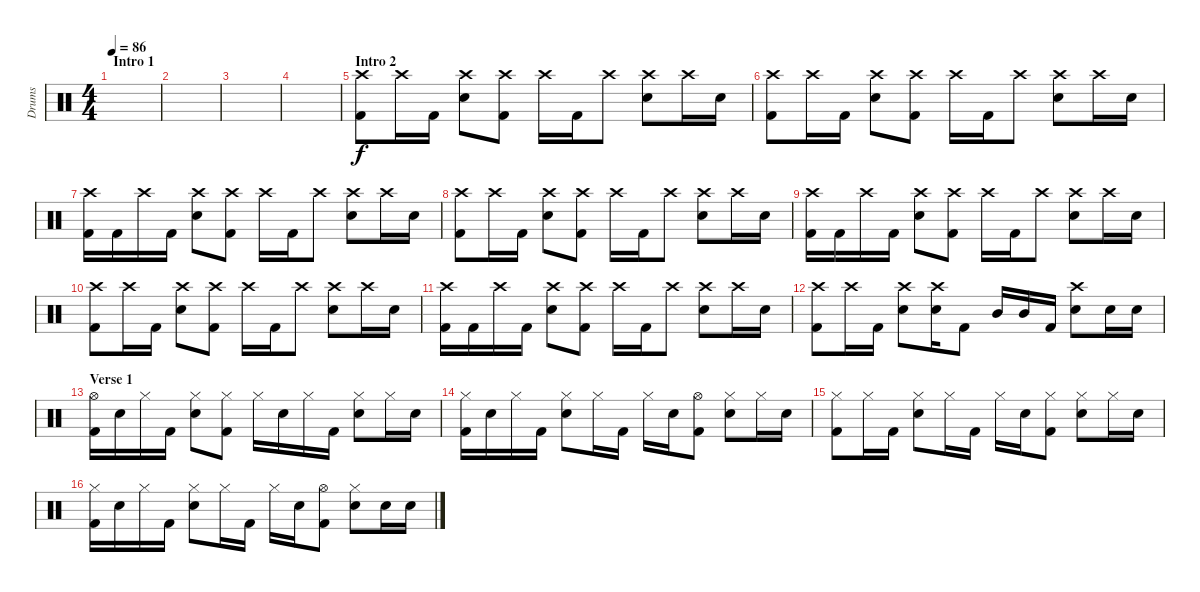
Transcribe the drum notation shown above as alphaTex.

\track ("Drums" "Drums") {instrument percussion}
\staff {score}
\articulation defaults
\ts (4 4)
\section ("" "Intro 1")
\tempo 86
\clef neutral
\ks c
|
|
|
|
\section ("" "Intro 2")
("Crash high (hit)" "Kick (hit) 2").8 "Crash high (hit)".16 "Kick (hit) 2".16 ("Crash high (hit)" "Electric Snare (hit)").8 ("Crash high (hit)" "Kick (hit) 2").8 "Crash high (hit)".16 "Kick (hit) 2".16 "Crash high (hit)".8 ("Crash high (hit)" "Electric Snare (hit)").8 "Crash high (hit)".16 "Electric Snare (hit)".16 |
("Crash high (hit)" "Kick (hit) 2").8 "Crash high (hit)".16 "Kick (hit) 2".16 ("Crash high (hit)" "Electric Snare (hit)").8 ("Crash high (hit)" "Kick (hit) 2").8 "Crash high (hit)".16 "Kick (hit) 2".16 "Crash high (hit)".8 ("Crash high (hit)" "Electric Snare (hit)").8 "Crash high (hit)".16 "Electric Snare (hit)".16 |
("Crash high (hit)" "Kick (hit) 2").16 "Kick (hit) 2".16 "Crash high (hit)".16 "Kick (hit) 2".16 ("Crash high (hit)" "Electric Snare (hit)").8 ("Crash high (hit)" "Kick (hit) 2").8 "Crash high (hit)".16 "Kick (hit) 2".16 "Crash high (hit)".8 ("Crash high (hit)" "Electric Snare (hit)").8 "Crash high (hit)".16 "Electric Snare (hit)".16 |
("Crash high (hit)" "Kick (hit) 2").8 "Crash high (hit)".16 "Kick (hit) 2".16 ("Crash high (hit)" "Electric Snare (hit)").8 ("Crash high (hit)" "Kick (hit) 2").8 "Crash high (hit)".16 "Kick (hit) 2".16 "Crash high (hit)".8 ("Crash high (hit)" "Electric Snare (hit)").8 "Crash high (hit)".16 "Electric Snare (hit)".16 |
("Crash high (hit)" "Kick (hit) 2").16 "Kick (hit) 2".16 "Crash high (hit)".16 "Kick (hit) 2".16 ("Crash high (hit)" "Electric Snare (hit)").8 ("Crash high (hit)" "Kick (hit) 2").8 "Crash high (hit)".16 "Kick (hit) 2".16 "Crash high (hit)".8 ("Crash high (hit)" "Electric Snare (hit)").8 "Crash high (hit)".16 "Electric Snare (hit)".16 |
("Crash high (hit)" "Kick (hit) 2").8 "Crash high (hit)".16 "Kick (hit) 2".16 ("Crash high (hit)" "Electric Snare (hit)").8 ("Crash high (hit)" "Kick (hit) 2").8 "Crash high (hit)".16 "Kick (hit) 2".16 "Crash high (hit)".8 ("Crash high (hit)" "Electric Snare (hit)").8 "Crash high (hit)".16 "Electric Snare (hit)".16 |
("Crash high (hit)" "Kick (hit) 2").16 "Kick (hit) 2".16 "Crash high (hit)".16 "Kick (hit) 2".16 ("Crash high (hit)" "Electric Snare (hit)").8 ("Crash high (hit)" "Kick (hit) 2").8 "Crash high (hit)".16 "Kick (hit) 2".16 "Crash high (hit)".8 ("Crash high (hit)" "Electric Snare (hit)").8 "Crash high (hit)".16 "Electric Snare (hit)".16 |
("Crash high (hit)" "Kick (hit) 2").8 "Crash high (hit)".16 "Kick (hit) 2".16 ("Crash high (hit)" "Electric Snare (hit)").8 ("Crash high (hit)" "Electric Snare (hit)").16 "Kick (hit) 2".8 "Mid Tom (hit)".16 "Mid Tom (hit)".16 "Kick (hit) 2".16 ("Crash high (hit)" "Electric Snare (hit)").8 "Electric Snare (hit)".16 "Electric Snare (hit)".16 |
\section ("" "Verse 1")
("Hi-Hat (open)" "Kick (hit) 2").16 "Electric Snare (hit)".16 "Hi-Hat (closed)".16 "Kick (hit) 2".16 ("Hi-Hat (closed)" "Electric Snare (hit)").8 ("Hi-Hat (closed)" "Kick (hit) 2").8 "Hi-Hat (closed)".16 "Electric Snare (hit)".16 "Hi-Hat (closed)".16 "Kick (hit) 2".16 ("Hi-Hat (closed)" "Electric Snare (hit)").8 "Hi-Hat (closed)".16 "Electric Snare (hit)".16 |
("Hi-Hat (closed)" "Kick (hit) 2").16 "Electric Snare (hit)".16 "Hi-Hat (closed)".16 "Kick (hit) 2".16 ("Hi-Hat (closed)" "Electric Snare (hit)").8 "Hi-Hat (closed)".16 "Kick (hit) 2".16 "Hi-Hat (closed)".16 "Electric Snare (hit)".16 ("Hi-Hat (open)" "Kick (hit) 2").8 ("Hi-Hat (closed)" "Electric Snare (hit)").8 "Hi-Hat (closed)".16 "Electric Snare (hit)".16 |
("Hi-Hat (closed)" "Kick (hit) 2").8 "Hi-Hat (closed)".16 "Kick (hit) 2".16 ("Hi-Hat (closed)" "Electric Snare (hit)").8 "Hi-Hat (closed)".16 "Kick (hit) 2".16 "Hi-Hat (closed)".16 "Electric Snare (hit)".16 ("Hi-Hat (closed)" "Kick (hit) 2").8 ("Hi-Hat (closed)" "Electric Snare (hit)").8 "Hi-Hat (closed)".16 "Electric Snare (hit)".16 |
("Hi-Hat (closed)" "Kick (hit) 2").16 "Electric Snare (hit)".16 "Hi-Hat (closed)".16 "Kick (hit) 2".16 ("Hi-Hat (closed)" "Electric Snare (hit)").8 "Hi-Hat (closed)".16 "Kick (hit) 2".16 "Hi-Hat (closed)".16 "Electric Snare (hit)".16 ("Hi-Hat (open)" "Kick (hit) 2").8 ("Hi-Hat (closed)" "Electric Snare (hit)").8 "Electric Snare (hit)".16 "Electric Snare (hit)".16
